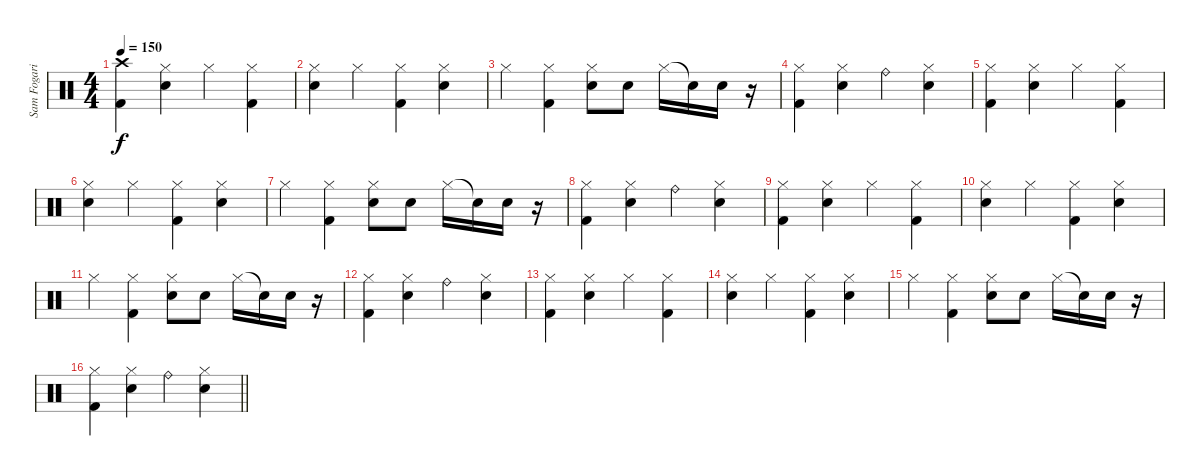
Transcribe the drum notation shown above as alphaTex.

\track ("Sam Fogarino" "Sam Fogari") {instrument percussion}
\staff {score}
\articulation defaults
\ts (4 4)
\tempo 150
\clef neutral
\ks c
("Crash high (hit)" "Kick (hit) 2").4{dy f} ("Electric Snare (hit)" "Hi-Hat (closed)").4 "Hi-Hat (closed)".4 ("Kick (hit) 2" "Hi-Hat (closed)").4 |
("Electric Snare (hit)" "Hi-Hat (closed)").4 "Hi-Hat (closed)".4 ("Kick (hit) 2" "Hi-Hat (closed)").4 ("Electric Snare (hit)" "Hi-Hat (closed)").4 |
"Hi-Hat (closed)".4 ("Kick (hit) 2" "Hi-Hat (closed)").4 ("Electric Snare (hit)" "Hi-Hat (closed)").8 "Electric Snare (hit)".8 "Hi-Hat (closed)".16 "Snare (hit)"{t}.16 "Electric Snare (hit)".16 r.16 |
("Hi-Hat (closed)" "Kick (hit) 2").4 ("Electric Snare (hit)" "Hi-Hat (closed)").4 "Ride (bell)".4 ("Electric Snare (hit)" "Hi-Hat (closed)").4 |
("Hi-Hat (closed)" "Kick (hit) 2").4 ("Electric Snare (hit)" "Hi-Hat (closed)").4 "Hi-Hat (closed)".4 ("Kick (hit) 2" "Hi-Hat (closed)").4 |
("Electric Snare (hit)" "Hi-Hat (closed)").4 "Hi-Hat (closed)".4 ("Kick (hit) 2" "Hi-Hat (closed)").4 ("Electric Snare (hit)" "Hi-Hat (closed)").4 |
"Hi-Hat (closed)".4 ("Kick (hit) 2" "Hi-Hat (closed)").4 ("Electric Snare (hit)" "Hi-Hat (closed)").8 "Electric Snare (hit)".8 "Hi-Hat (closed)".16 "Snare (hit)"{t}.16 "Electric Snare (hit)".16 r.16 |
("Hi-Hat (closed)" "Kick (hit) 2").4 ("Electric Snare (hit)" "Hi-Hat (closed)").4 "Ride (bell)".4 ("Electric Snare (hit)" "Hi-Hat (closed)").4 |
("Hi-Hat (closed)" "Kick (hit) 2").4 ("Electric Snare (hit)" "Hi-Hat (closed)").4 "Hi-Hat (closed)".4 ("Kick (hit) 2" "Hi-Hat (closed)").4 |
("Electric Snare (hit)" "Hi-Hat (closed)").4 "Hi-Hat (closed)".4 ("Kick (hit) 2" "Hi-Hat (closed)").4 ("Electric Snare (hit)" "Hi-Hat (closed)").4 |
"Hi-Hat (closed)".4 ("Kick (hit) 2" "Hi-Hat (closed)").4 ("Electric Snare (hit)" "Hi-Hat (closed)").8 "Electric Snare (hit)".8 "Hi-Hat (closed)".16 "Snare (hit)"{t}.16 "Electric Snare (hit)".16 r.16 |
("Hi-Hat (closed)" "Kick (hit) 2").4 ("Electric Snare (hit)" "Hi-Hat (closed)").4 "Ride (bell)".4 ("Electric Snare (hit)" "Hi-Hat (closed)").4 |
("Hi-Hat (closed)" "Kick (hit) 2").4 ("Electric Snare (hit)" "Hi-Hat (closed)").4 "Hi-Hat (closed)".4 ("Kick (hit) 2" "Hi-Hat (closed)").4 |
("Electric Snare (hit)" "Hi-Hat (closed)").4 "Hi-Hat (closed)".4 ("Kick (hit) 2" "Hi-Hat (closed)").4 ("Electric Snare (hit)" "Hi-Hat (closed)").4 |
"Hi-Hat (closed)".4 ("Kick (hit) 2" "Hi-Hat (closed)").4 ("Electric Snare (hit)" "Hi-Hat (closed)").8 "Electric Snare (hit)".8 "Hi-Hat (closed)".16 "Snare (hit)"{t}.16 "Electric Snare (hit)".16 r.16 |
\barLineRight lightlight
("Hi-Hat (closed)" "Kick (hit) 2").4 ("Electric Snare (hit)" "Hi-Hat (closed)").4 "Ride (bell)".4 ("Electric Snare (hit)" "Hi-Hat (closed)").4
